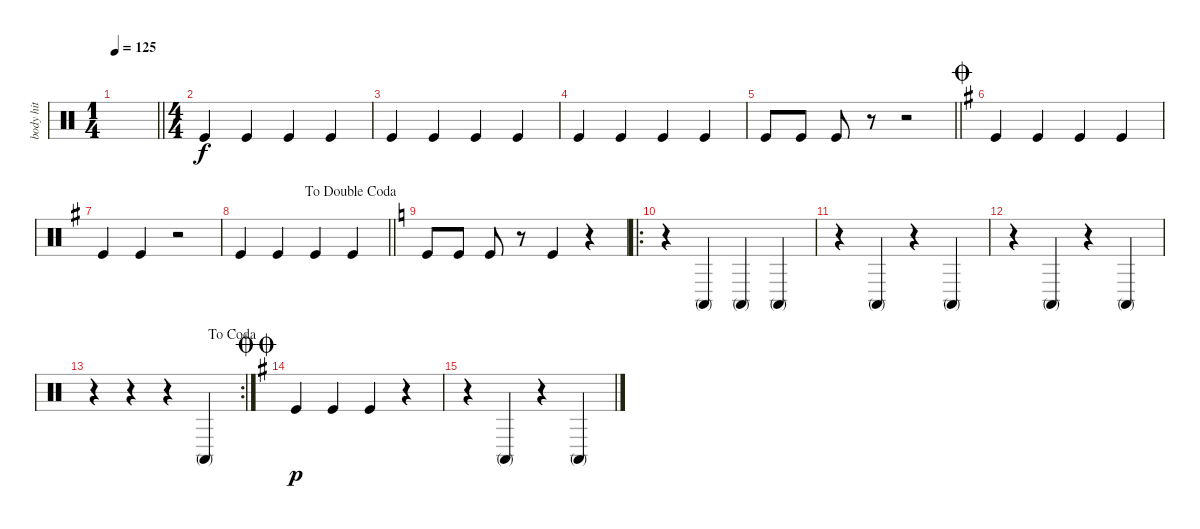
\track ("body hit" "body hit") {instrument percussion}
\staff {score}
\articulation defaults
\ts (1 4)
\tempo 125
\clef neutral
\barLineRight lightlight
\ks c
|
\ts (4 4)
"Kick (hit)".4 "Kick (hit)".4 "Kick (hit)".4 "Kick (hit)".4 |
"Kick (hit)".4 "Kick (hit)".4 "Kick (hit)".4 "Kick (hit)".4 |
"Kick (hit)".4 "Kick (hit)".4 "Kick (hit)".4 "Kick (hit)".4 |
\barLineRight lightlight "Kick (hit)".8 "Kick (hit)".8 "Kick (hit)".8
r.8 r.2 |
\jump coda
\ks g "Kick (hit)".4 "Kick (hit)".4 "Kick (hit)".4 "Kick (hit)".4
|
"Kick (hit)".4 "Kick (hit)".4 r.2 |
\jump dadoublecoda
\barLineRight lightlight "Kick (hit)".4 "Kick (hit)".4 "Kick (hit)".4 "Kick (hit)".4
|
\ks c "Kick (hit)".8 "Kick (hit)".8 "Kick (hit)".8
r.8 "Kick (hit)".4 r.4 |
\ro
r.4 "Conga high (mute)".4 "Conga high (mute)".4 "Conga high (mute)".4 |
r.4 "Conga high (mute)".4 r.4 "Conga high (mute)".4 |
r.4 "Conga high (mute)".4 r.4 "Conga high (mute)".4 |
\rc 2
\jump dacoda
r.4 r.4 r.4 "Conga high (mute)".4{dy f} |
\jump doublecoda
\ks g "Kick (hit)".4{dy p} "Kick (hit)".4 "Kick (hit)".4
r.4 |
r.4 "Conga high (mute)".4 r.4 "Conga high (mute)".4
